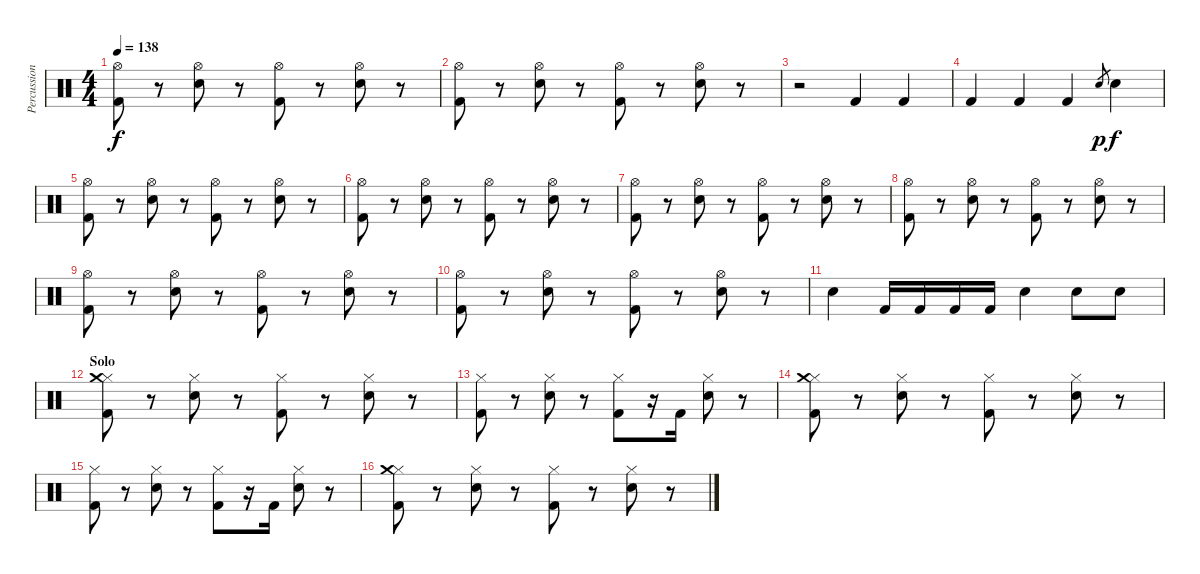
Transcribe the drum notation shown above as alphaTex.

\track ("Percussions" "Percussion") {instrument percussion}
\staff {score}
\articulation defaults
\ts (4 4)
\tempo 138
\clef neutral
\ks c
("Hi-Hat (open)" "Kick (hit) 2").8{dy f} r.8 ("Hi-Hat (open)" "Electric Snare (hit)").8 r.8 ("Hi-Hat (open)" "Kick (hit) 2").8 r.8 ("Hi-Hat (open)" "Electric Snare (hit)").8 r.8 |
("Hi-Hat (open)" "Kick (hit) 2").8 r.8 ("Hi-Hat (open)" "Electric Snare (hit)").8 r.8 ("Hi-Hat (open)" "Kick (hit) 2").8 r.8 ("Hi-Hat (open)" "Electric Snare (hit)").8 r.8 |
r.2 "Kick (hit) 2".4 "Kick (hit) 2".4 |
"Kick (hit) 2".4 "Kick (hit) 2".4 "Kick (hit) 2".4 "Electric Snare (hit)".8{gr dy p} "Electric Snare (hit)".4{dy f} |
("Hi-Hat (open)" "Kick (hit) 2").8 r.8 ("Hi-Hat (open)" "Electric Snare (hit)").8 r.8 ("Hi-Hat (open)" "Kick (hit) 2").8 r.8 ("Hi-Hat (open)" "Electric Snare (hit)").8 r.8 |
("Hi-Hat (open)" "Kick (hit) 2").8 r.8 ("Hi-Hat (open)" "Electric Snare (hit)").8 r.8 ("Hi-Hat (open)" "Kick (hit) 2").8 r.8 ("Hi-Hat (open)" "Electric Snare (hit)").8 r.8 |
("Hi-Hat (open)" "Kick (hit) 2").8 r.8 ("Hi-Hat (open)" "Electric Snare (hit)").8 r.8 ("Hi-Hat (open)" "Kick (hit) 2").8 r.8 ("Hi-Hat (open)" "Electric Snare (hit)").8 r.8 |
("Hi-Hat (open)" "Kick (hit) 2").8 r.8 ("Hi-Hat (open)" "Electric Snare (hit)").8 r.8 ("Hi-Hat (open)" "Kick (hit) 2").8 r.8 ("Hi-Hat (open)" "Electric Snare (hit)").8 r.8 |
("Hi-Hat (open)" "Kick (hit) 2").8 r.8 ("Hi-Hat (open)" "Electric Snare (hit)").8 r.8 ("Hi-Hat (open)" "Kick (hit) 2").8 r.8 ("Hi-Hat (open)" "Electric Snare (hit)").8 r.8 |
("Hi-Hat (open)" "Kick (hit) 2").8 r.8 ("Hi-Hat (open)" "Electric Snare (hit)").8 r.8 ("Hi-Hat (open)" "Kick (hit) 2").8 r.8 ("Hi-Hat (open)" "Electric Snare (hit)").8 r.8 |
"Electric Snare (hit)".4 "Kick (hit) 2".16 "Kick (hit) 2".16 "Kick (hit) 2".16 "Kick (hit) 2".16 "Electric Snare (hit)".4 "Electric Snare (hit)".8 "Electric Snare (hit)".8 |
\section ("" "Solo")
("Hi-Hat (closed)" "Crash medium (hit)" "Kick (hit) 2").8 r.8 ("Hi-Hat (closed)" "Electric Snare (hit)").8 r.8 ("Hi-Hat (closed)" "Kick (hit) 2").8 r.8 ("Hi-Hat (closed)" "Electric Snare (hit)").8 r.8 |
("Hi-Hat (closed)" "Kick (hit) 2").8 r.8 ("Hi-Hat (closed)" "Electric Snare (hit)").8 r.8 ("Hi-Hat (closed)" "Kick (hit) 2").8 r.16 "Kick (hit) 2".16 ("Hi-Hat (closed)" "Electric Snare (hit)").8 r.8 |
("Hi-Hat (closed)" "Crash medium (hit)" "Kick (hit) 2").8 r.8 ("Hi-Hat (closed)" "Electric Snare (hit)").8 r.8 ("Hi-Hat (closed)" "Kick (hit) 2").8 r.8 ("Hi-Hat (closed)" "Electric Snare (hit)").8 r.8 |
("Hi-Hat (closed)" "Kick (hit) 2").8 r.8 ("Hi-Hat (closed)" "Electric Snare (hit)").8 r.8 ("Hi-Hat (closed)" "Kick (hit) 2").8 r.16 "Kick (hit) 2".16 ("Hi-Hat (closed)" "Electric Snare (hit)").8 r.8 |
("Hi-Hat (closed)" "Crash medium (hit)" "Kick (hit) 2").8 r.8 ("Hi-Hat (closed)" "Electric Snare (hit)").8 r.8 ("Hi-Hat (closed)" "Kick (hit) 2").8 r.8 ("Hi-Hat (closed)" "Electric Snare (hit)").8 r.8
